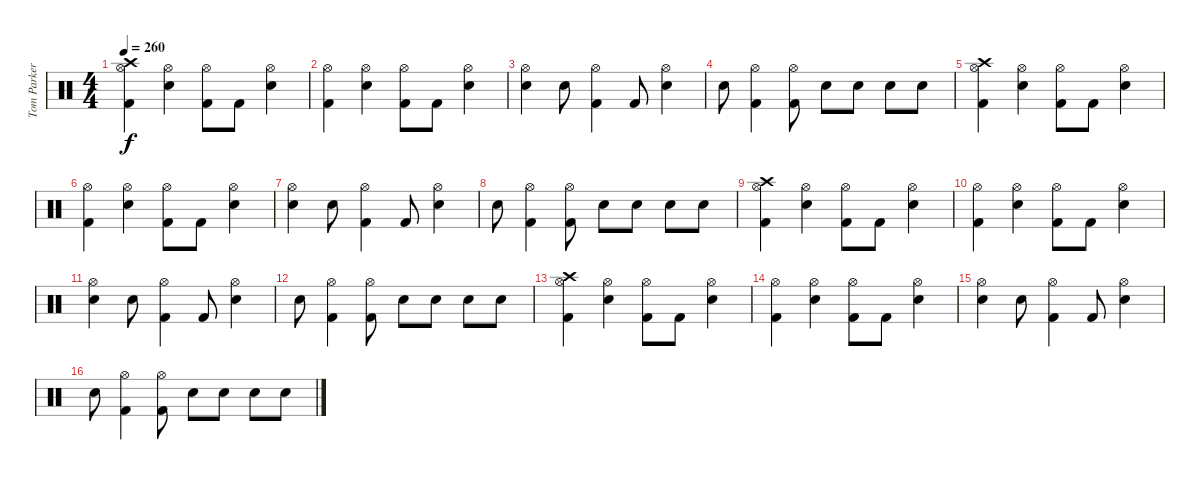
\track ("Tom Parker" "Tom Parker") {instrument percussion}
\staff {score}
\articulation defaults
\ts (4 4)
\tempo 260
\clef neutral
\ks c
("Crash high (hit)" "Hi-Hat (open)" "Kick (hit) 2").4{dy f} ("Hi-Hat (open)" "Electric Snare (hit)").4 ("Hi-Hat (open)" "Kick (hit) 2").8 "Kick (hit) 2".8 ("Hi-Hat (open)" "Electric Snare (hit)").4 |
("Hi-Hat (open)" "Kick (hit) 2").4 ("Hi-Hat (open)" "Electric Snare (hit)").4 ("Hi-Hat (open)" "Kick (hit) 2").8 "Kick (hit) 2".8 ("Hi-Hat (open)" "Electric Snare (hit)").4 |
("Hi-Hat (open)" "Electric Snare (hit)").4 "Electric Snare (hit)".8 ("Hi-Hat (open)" "Kick (hit) 2").4 "Kick (hit) 2".8 ("Hi-Hat (open)" "Electric Snare (hit)").4 |
"Electric Snare (hit)".8 ("Hi-Hat (open)" "Kick (hit) 2").4 ("Hi-Hat (open)" "Kick (hit) 2").8 "Electric Snare (hit)".8 "Electric Snare (hit)".8 "Electric Snare (hit)".8 "Electric Snare (hit)".8 |
("Crash high (hit)" "Hi-Hat (open)" "Kick (hit) 2").4 ("Hi-Hat (open)" "Electric Snare (hit)").4 ("Hi-Hat (open)" "Kick (hit) 2").8 "Kick (hit) 2".8 ("Hi-Hat (open)" "Electric Snare (hit)").4 |
("Hi-Hat (open)" "Kick (hit) 2").4 ("Hi-Hat (open)" "Electric Snare (hit)").4 ("Hi-Hat (open)" "Kick (hit) 2").8 "Kick (hit) 2".8 ("Hi-Hat (open)" "Electric Snare (hit)").4 |
("Hi-Hat (open)" "Electric Snare (hit)").4 "Electric Snare (hit)".8 ("Hi-Hat (open)" "Kick (hit) 2").4 "Kick (hit) 2".8 ("Hi-Hat (open)" "Electric Snare (hit)").4 |
"Electric Snare (hit)".8 ("Hi-Hat (open)" "Kick (hit) 2").4 ("Hi-Hat (open)" "Kick (hit) 2").8 "Electric Snare (hit)".8 "Electric Snare (hit)".8 "Electric Snare (hit)".8 "Electric Snare (hit)".8 |
("Crash high (hit)" "Hi-Hat (open)" "Kick (hit) 2").4 ("Hi-Hat (open)" "Electric Snare (hit)").4 ("Hi-Hat (open)" "Kick (hit) 2").8 "Kick (hit) 2".8 ("Hi-Hat (open)" "Electric Snare (hit)").4 |
("Hi-Hat (open)" "Kick (hit) 2").4 ("Hi-Hat (open)" "Electric Snare (hit)").4 ("Hi-Hat (open)" "Kick (hit) 2").8 "Kick (hit) 2".8 ("Hi-Hat (open)" "Electric Snare (hit)").4 |
("Hi-Hat (open)" "Electric Snare (hit)").4 "Electric Snare (hit)".8 ("Hi-Hat (open)" "Kick (hit) 2").4 "Kick (hit) 2".8 ("Hi-Hat (open)" "Electric Snare (hit)").4 |
"Electric Snare (hit)".8 ("Hi-Hat (open)" "Kick (hit) 2").4 ("Hi-Hat (open)" "Kick (hit) 2").8 "Electric Snare (hit)".8 "Electric Snare (hit)".8 "Electric Snare (hit)".8 "Electric Snare (hit)".8 |
("Crash high (hit)" "Hi-Hat (open)" "Kick (hit) 2").4 ("Hi-Hat (open)" "Electric Snare (hit)").4 ("Hi-Hat (open)" "Kick (hit) 2").8 "Kick (hit) 2".8 ("Hi-Hat (open)" "Electric Snare (hit)").4 |
("Hi-Hat (open)" "Kick (hit) 2").4 ("Hi-Hat (open)" "Electric Snare (hit)").4 ("Hi-Hat (open)" "Kick (hit) 2").8 "Kick (hit) 2".8 ("Hi-Hat (open)" "Electric Snare (hit)").4 |
("Hi-Hat (open)" "Electric Snare (hit)").4 "Electric Snare (hit)".8 ("Hi-Hat (open)" "Kick (hit) 2").4 "Kick (hit) 2".8 ("Hi-Hat (open)" "Electric Snare (hit)").4 |
"Electric Snare (hit)".8 ("Hi-Hat (open)" "Kick (hit) 2").4 ("Hi-Hat (open)" "Kick (hit) 2").8 "Electric Snare (hit)".8 "Electric Snare (hit)".8 "Electric Snare (hit)".8 "Electric Snare (hit)".8
